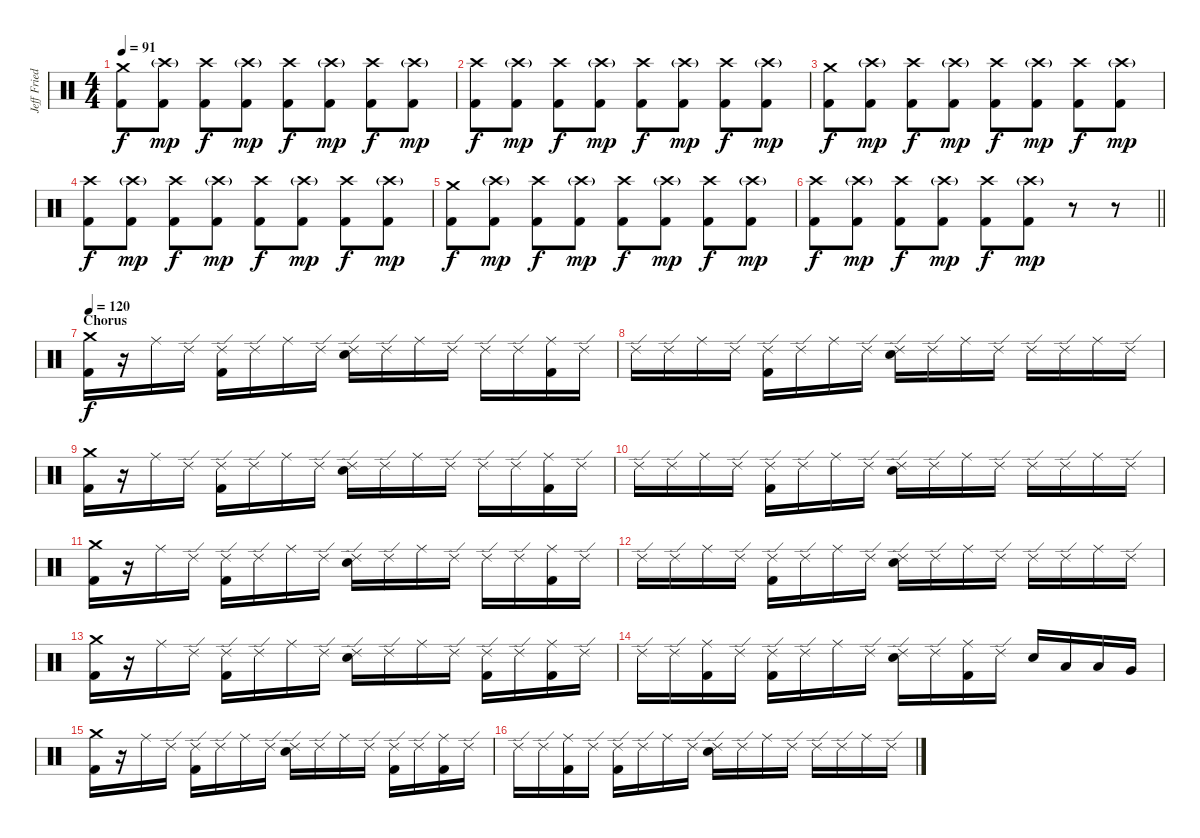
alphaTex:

\track ("Jeff Friedl" "Jeff Fried") {instrument percussion}
\staff {score}
\articulation defaults
\ts (4 4)
\tempo 91
\clef neutral
\ks c
("Crash medium (hit)" "Kick (hit) 2").8{dy f} ("Crash high (hit)"{g} "Kick (hit) 2").8{dy mp} ("Crash high (hit)" "Kick (hit) 2").8{dy f} ("Crash high (hit)"{g} "Kick (hit) 2").8{dy mp} ("Crash high (hit)" "Kick (hit) 2").8{dy f} ("Crash high (hit)"{g} "Kick (hit) 2").8{dy mp} ("Crash high (hit)" "Kick (hit) 2").8{dy f} ("Crash high (hit)"{g} "Kick (hit) 2").8{dy mp} |
("Crash high (hit)" "Kick (hit) 2").8{dy f} ("Crash high (hit)"{g} "Kick (hit) 2").8{dy mp} ("Crash high (hit)" "Kick (hit) 2").8{dy f} ("Crash high (hit)"{g} "Kick (hit) 2").8{dy mp} ("Crash high (hit)" "Kick (hit) 2").8{dy f} ("Crash high (hit)"{g} "Kick (hit) 2").8{dy mp} ("Crash high (hit)" "Kick (hit) 2").8{dy f} ("Crash high (hit)"{g} "Kick (hit) 2").8{dy mp} |
("Crash medium (hit)" "Kick (hit) 2").8{dy f} ("Crash high (hit)"{g} "Kick (hit) 2").8{dy mp} ("Crash high (hit)" "Kick (hit) 2").8{dy f} ("Crash high (hit)"{g} "Kick (hit) 2").8{dy mp} ("Crash high (hit)" "Kick (hit) 2").8{dy f} ("Crash high (hit)"{g} "Kick (hit) 2").8{dy mp} ("Crash high (hit)" "Kick (hit) 2").8{dy f} ("Crash high (hit)"{g} "Kick (hit) 2").8{dy mp} |
("Crash high (hit)" "Kick (hit) 2").8{dy f} ("Crash high (hit)"{g} "Kick (hit) 2").8{dy mp} ("Crash high (hit)" "Kick (hit) 2").8{dy f} ("Crash high (hit)"{g} "Kick (hit) 2").8{dy mp} ("Crash high (hit)" "Kick (hit) 2").8{dy f} ("Crash high (hit)"{g} "Kick (hit) 2").8{dy mp} ("Crash high (hit)" "Kick (hit) 2").8{dy f} ("Crash high (hit)"{g} "Kick (hit) 2").8{dy mp} |
("Crash medium (hit)" "Kick (hit) 2").8{dy f} ("Crash high (hit)"{g} "Kick (hit) 2").8{dy mp} ("Crash high (hit)" "Kick (hit) 2").8{dy f} ("Crash high (hit)"{g} "Kick (hit) 2").8{dy mp} ("Crash high (hit)" "Kick (hit) 2").8{dy f} ("Crash high (hit)"{g} "Kick (hit) 2").8{dy mp} ("Crash high (hit)" "Kick (hit) 2").8{dy f} ("Crash high (hit)"{g} "Kick (hit) 2").8{dy mp} |
\barLineRight lightlight
("Crash high (hit)" "Kick (hit) 2").8{dy f} ("Crash high (hit)"{g} "Kick (hit) 2").8{dy mp} ("Crash high (hit)" "Kick (hit) 2").8{dy f} ("Crash high (hit)"{g} "Kick (hit) 2").8{dy mp} ("Crash high (hit)" "Kick (hit) 2").8{dy f} ("Crash high (hit)"{g} "Kick (hit) 2").8{dy mp} r.8 r.8 |
\section ("" "Chorus")
\tempo 120
("Crash medium (hit)" "Kick (hit) 2").16{dy f} r.16 "Ride (middle)".16 "Ride (edge) 2".16 ("Ride (edge) 2" "Kick (hit) 2").16 "Ride (edge) 2".16 "Ride (middle)".16 "Ride (edge) 2".16 ("Ride (edge) 2" "Snare (hit) 2").16 "Ride (edge) 2".16 "Ride (middle)".16 "Ride (edge) 2".16 "Ride (edge) 2".16 "Ride (edge) 2".16 ("Ride (middle)" "Kick (hit) 2").16 "Ride (edge) 2".16 |
"Ride (edge) 2".16 "Ride (edge) 2".16 "Ride (middle)".16 "Ride (edge) 2".16 ("Ride (edge) 2" "Kick (hit) 2").16 "Ride (edge) 2".16 "Ride (middle)".16 "Ride (edge) 2".16 ("Ride (edge) 2" "Snare (hit) 2").16 "Ride (edge) 2".16 "Ride (middle)".16 "Ride (edge) 2".16 "Ride (edge) 2".16 "Ride (edge) 2".16 "Ride (middle)".16 "Ride (edge) 2".16 |
("Crash medium (hit)" "Kick (hit) 2").16 r.16 "Ride (middle)".16 "Ride (edge) 2".16 ("Ride (edge) 2" "Kick (hit) 2").16 "Ride (edge) 2".16 "Ride (middle)".16 "Ride (edge) 2".16 ("Ride (edge) 2" "Snare (hit) 2").16 "Ride (edge) 2".16 "Ride (middle)".16 "Ride (edge) 2".16 "Ride (edge) 2".16 "Ride (edge) 2".16 ("Ride (middle)" "Kick (hit) 2").16 "Ride (edge) 2".16 |
"Ride (edge) 2".16 "Ride (edge) 2".16 "Ride (middle)".16 "Ride (edge) 2".16 ("Ride (edge) 2" "Kick (hit) 2").16 "Ride (edge) 2".16 "Ride (middle)".16 "Ride (edge) 2".16 ("Ride (edge) 2" "Snare (hit) 2").16 "Ride (edge) 2".16 "Ride (middle)".16 "Ride (edge) 2".16 "Ride (edge) 2".16 "Ride (edge) 2".16 "Ride (middle)".16 "Ride (edge) 2".16 |
("Crash medium (hit)" "Kick (hit) 2").16 r.16 "Ride (middle)".16 "Ride (edge) 2".16 ("Ride (edge) 2" "Kick (hit) 2").16 "Ride (edge) 2".16 "Ride (middle)".16 "Ride (edge) 2".16 ("Ride (edge) 2" "Snare (hit) 2").16 "Ride (edge) 2".16 "Ride (middle)".16 "Ride (edge) 2".16 "Ride (edge) 2".16 "Ride (edge) 2".16 ("Ride (middle)" "Kick (hit) 2").16 "Ride (edge) 2".16 |
"Ride (edge) 2".16 "Ride (edge) 2".16 "Ride (middle)".16 "Ride (edge) 2".16 ("Ride (edge) 2" "Kick (hit) 2").16 "Ride (edge) 2".16 "Ride (middle)".16 "Ride (edge) 2".16 ("Ride (edge) 2" "Snare (hit) 2").16 "Ride (edge) 2".16 "Ride (middle)".16 "Ride (edge) 2".16 "Ride (edge) 2".16 "Ride (edge) 2".16 "Ride (middle)".16 "Ride (edge) 2".16 |
("Crash medium (hit)" "Kick (hit) 2").16 r.16 "Ride (middle)".16 "Ride (edge) 2".16 ("Ride (edge) 2" "Kick (hit) 2").16 "Ride (edge) 2".16 "Ride (middle)".16 "Ride (edge) 2".16 ("Ride (edge) 2" "Snare (hit) 2").16 "Ride (edge) 2".16 "Ride (middle)".16 "Ride (edge) 2".16 ("Ride (edge) 2" "Kick (hit) 2").16 "Ride (edge) 2".16 ("Ride (middle)" "Kick (hit) 2").16 "Ride (edge) 2".16 |
"Ride (edge) 2".16 "Ride (edge) 2".16 ("Ride (middle)" "Kick (hit) 2").16 "Ride (edge) 2".16 ("Ride (edge) 2" "Kick (hit) 2").16 "Ride (edge) 2".16 "Ride (middle)".16 "Ride (edge) 2".16 ("Ride (edge) 2" "Snare (hit) 2").16 "Ride (edge) 2".16 ("Ride (middle)" "Kick (hit) 2").16 "Ride (edge) 2".16 "Snare (hit) 2".16 "Low Tom (hit)".16 "Low Tom (hit)".16 "Very Low Tom (hit)".16 |
("Crash medium (hit)" "Kick (hit) 2").16 r.16 "Ride (middle)".16 "Ride (edge) 2".16 ("Ride (edge) 2" "Kick (hit) 2").16 "Ride (edge) 2".16 "Ride (middle)".16 "Ride (edge) 2".16 ("Ride (edge) 2" "Snare (hit) 2").16 "Ride (edge) 2".16 "Ride (middle)".16 "Ride (edge) 2".16 ("Ride (edge) 2" "Kick (hit) 2").16 "Ride (edge) 2".16 ("Ride (middle)" "Kick (hit) 2").16 "Ride (edge) 2".16 |
"Ride (edge) 2".16 "Ride (edge) 2".16 ("Ride (middle)" "Kick (hit) 2").16 "Ride (edge) 2".16 ("Ride (edge) 2" "Kick (hit) 2").16 "Ride (edge) 2".16 "Ride (middle)".16 "Ride (edge) 2".16 ("Ride (edge) 2" "Snare (hit) 2").16 "Ride (edge) 2".16 "Ride (middle)".16 "Ride (edge) 2".16 "Ride (edge) 2".16 "Ride (edge) 2".16 "Ride (middle)".16 "Ride (edge) 2".16
